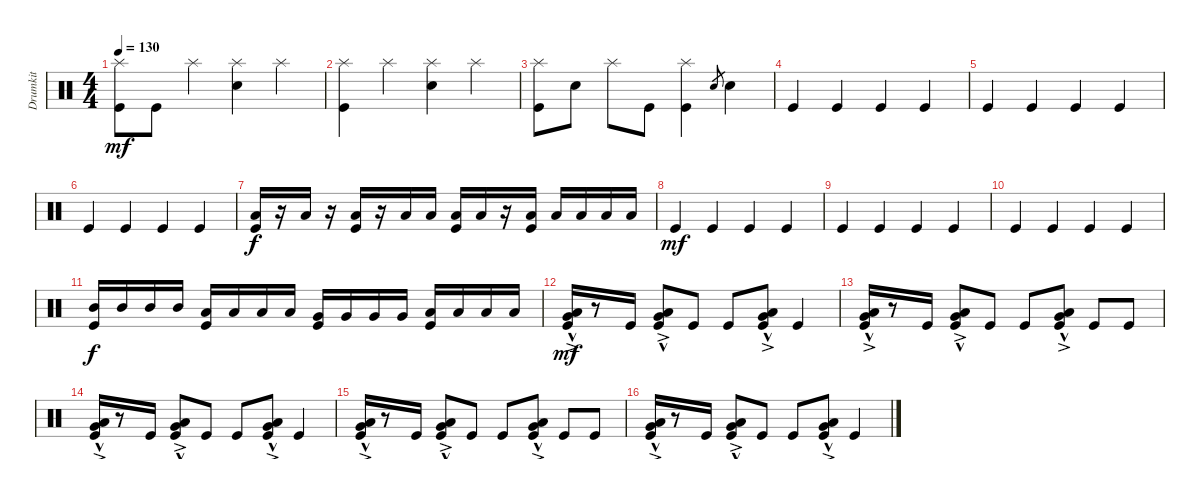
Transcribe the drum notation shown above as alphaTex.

\track ("Drumkit" "Drumkit") {instrument percussion}
\staff {score}
\articulation defaults
\ts (4 4)
\tempo 130
\clef neutral
\ks c
("Kick (hit)" "Splash (hit)").8{dy mf} "Kick (hit)".8 "Splash (hit)".4 ("Snare (hit) 2" "Splash (hit)").4 "Splash (hit)".4 |
("Kick (hit)" "Splash (hit)").4 "Splash (hit)".4 ("Snare (hit) 2" "Splash (hit)").4 "Splash (hit)".4 |
("Kick (hit)" "Splash (hit)").8 "Snare (hit) 2".8 "Splash (hit)".8 "Kick (hit)".8 ("Kick (hit)" "Splash (hit)").4 "Snare (hit)".8{gr} "Snare (hit) 2".4 |
"Kick (hit)".4 "Kick (hit)".4 "Kick (hit)".4 "Kick (hit)".4 |
"Kick (hit)".4 "Kick (hit)".4 "Kick (hit)".4 "Kick (hit)".4 |
"Kick (hit)".4 "Kick (hit)".4 "Kick (hit)".4 "Kick (hit)".4 |
("Kick (hit)" "Low Tom (hit)").16{dy f} r.16 "Low Tom (hit)".16 r.16 ("Low Tom (hit)" "Kick (hit)").16 r.16 "Low Tom (hit)".16 "Low Tom (hit)".16 ("Low Tom (hit)" "Kick (hit)").16 "Low Tom (hit)".16 r.16 ("Low Tom (hit)" "Kick (hit)").16 "Low Tom (hit)".16 "Low Tom (hit)".16 "Low Tom (hit)".16 "Low Tom (hit)".16 |
"Kick (hit)".4{dy mf} "Kick (hit)".4 "Kick (hit)".4 "Kick (hit)".4 |
"Kick (hit)".4 "Kick (hit)".4 "Kick (hit)".4 "Kick (hit)".4 |
"Kick (hit)".4 "Kick (hit)".4 "Kick (hit)".4 "Kick (hit)".4 |
("Kick (hit)" "Mid Tom (hit)").16{dy f} "Mid Tom (hit)".16 "Mid Tom (hit)".16 "Mid Tom (hit)".16 ("Low Tom (hit)" "Kick (hit)").16 "Low Tom (hit)".16 "Low Tom (hit)".16 "Low Tom (hit)".16 ("Kick (hit)" "Very Low Tom (hit)").16 "Very Low Tom (hit)".16 "Very Low Tom (hit)".16 "Very Low Tom (hit)".16 ("Kick (hit)" "Low Floor Tom (hit)").16 "Low Floor Tom (hit)".16 "Low Floor Tom (hit)".16 "Low Floor Tom (hit)".16 |
("Kick (hit)" "Very Low Tom (hit)"{hac} "Low Tom (hit)"{ac}).16{dy mf} r.8 "Kick (hit)".16 ("Kick (hit)" "Low Tom (hit)"{ac} "Very Low Tom (hit)"{hac}).8 "Kick (hit)".8 "Kick (hit)".8 ("Kick (hit)" "Very Low Tom (hit)"{hac} "Low Tom (hit)"{ac}).8 "Kick (hit)".4 |
("Kick (hit)" "Very Low Tom (hit)"{hac} "Low Tom (hit)"{ac}).16 r.8 "Kick (hit)".16 ("Kick (hit)" "Low Tom (hit)"{ac} "Very Low Tom (hit)"{hac}).8 "Kick (hit)".8 "Kick (hit)".8 ("Kick (hit)" "Very Low Tom (hit)"{hac} "Low Tom (hit)"{ac}).8 "Kick (hit)".8 "Kick (hit)".8 |
("Kick (hit)" "Very Low Tom (hit)"{hac} "Low Tom (hit)"{ac}).16 r.8 "Kick (hit)".16 ("Kick (hit)" "Low Tom (hit)"{ac} "Very Low Tom (hit)"{hac}).8 "Kick (hit)".8 "Kick (hit)".8 ("Kick (hit)" "Very Low Tom (hit)"{hac} "Low Tom (hit)"{ac}).8 "Kick (hit)".4 |
("Kick (hit)" "Very Low Tom (hit)"{hac} "Low Tom (hit)"{ac}).16 r.8 "Kick (hit)".16 ("Kick (hit)" "Low Tom (hit)"{ac} "Very Low Tom (hit)"{hac}).8 "Kick (hit)".8 "Kick (hit)".8 ("Kick (hit)" "Very Low Tom (hit)"{hac} "Low Tom (hit)"{ac}).8 "Kick (hit)".8 "Kick (hit)".8 |
("Kick (hit)" "Very Low Tom (hit)"{hac} "Low Tom (hit)"{ac}).16 r.8 "Kick (hit)".16 ("Kick (hit)" "Low Tom (hit)"{ac} "Very Low Tom (hit)"{hac}).8 "Kick (hit)".8 "Kick (hit)".8 ("Kick (hit)" "Very Low Tom (hit)"{hac} "Low Tom (hit)"{ac}).8 "Kick (hit)".4
